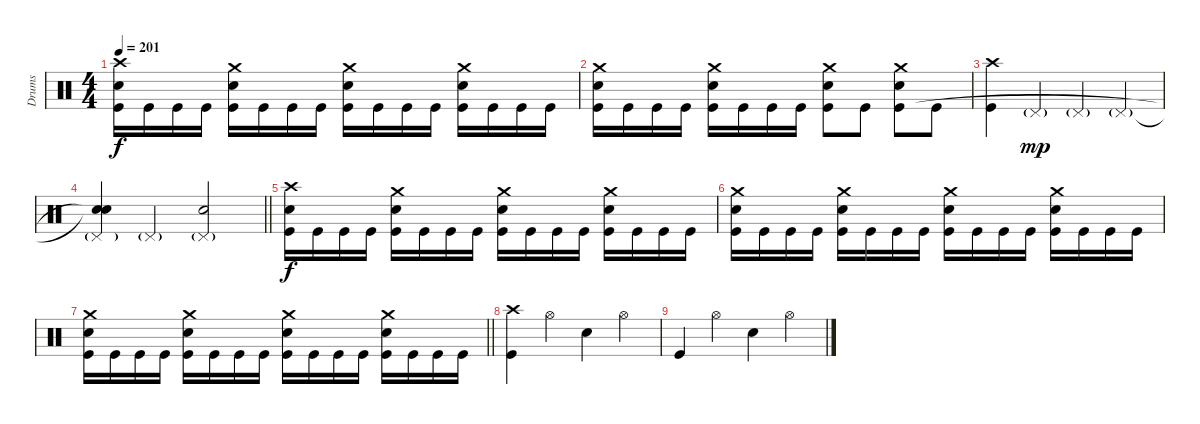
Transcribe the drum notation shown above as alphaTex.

\track ("Drums" "Drums") {instrument percussion}
\staff
\articulation defaults
\ts (4 4)
\tempo 201
\clef neutral
\ks c
("Crash high (hit)" "Electric Snare (hit)" "Kick (hit)").16{dy f} "Kick (hit)".16 "Kick (hit)".16 "Kick (hit)".16 ("Crash medium (hit)" "Electric Snare (hit)" "Kick (hit)").16 "Kick (hit)".16 "Kick (hit)".16 "Kick (hit)".16 ("Crash medium (hit)" "Electric Snare (hit)" "Kick (hit)").16 "Kick (hit)".16 "Kick (hit)".16 "Kick (hit)".16 ("Crash medium (hit)" "Electric Snare (hit)" "Kick (hit)").16 "Kick (hit)".16 "Kick (hit)".16 "Kick (hit)".16 |
("Crash medium (hit)" "Electric Snare (hit)" "Kick (hit)").16 "Kick (hit)".16 "Kick (hit)".16 "Kick (hit)".16 ("Crash medium (hit)" "Electric Snare (hit)" "Kick (hit)").16 "Kick (hit)".16 "Kick (hit)".16 "Kick (hit)".16 ("Crash medium (hit)" "Electric Snare (hit)" "Kick (hit)").8 "Kick (hit)".8 ("Crash medium (hit)" "Electric Snare (hit)" "Kick (hit)").8 "Kick (hit)".8 |
("Crash high (hit)" "Kick (hit)").4 "Pedal Hi-Hat (hit)"{g}.4{dy mp} "Pedal Hi-Hat (hit)"{g}.4 "Pedal Hi-Hat (hit)"{g}.4 |
\barLineRight lightlight
("Snare (hit)"{t} "Pedal Hi-Hat (hit)"{g} "Snare (hit)"{t}).4 "Pedal Hi-Hat (hit)"{g}.4 ("Pedal Hi-Hat (hit)"{g} "Electric Snare (hit)").2 |
("Crash high (hit)" "Electric Snare (hit)" "Kick (hit)").16{dy f} "Kick (hit)".16 "Kick (hit)".16 "Kick (hit)".16 ("Crash medium (hit)" "Electric Snare (hit)" "Kick (hit)").16 "Kick (hit)".16 "Kick (hit)".16 "Kick (hit)".16 ("Crash medium (hit)" "Electric Snare (hit)" "Kick (hit)").16 "Kick (hit)".16 "Kick (hit)".16 "Kick (hit)".16 ("Crash medium (hit)" "Electric Snare (hit)" "Kick (hit)").16 "Kick (hit)".16 "Kick (hit)".16 "Kick (hit)".16 |
("Crash medium (hit)" "Electric Snare (hit)" "Kick (hit)").16 "Kick (hit)".16 "Kick (hit)".16 "Kick (hit)".16 ("Crash medium (hit)" "Electric Snare (hit)" "Kick (hit)").16 "Kick (hit)".16 "Kick (hit)".16 "Kick (hit)".16 ("Crash medium (hit)" "Electric Snare (hit)" "Kick (hit)").16 "Kick (hit)".16 "Kick (hit)".16 "Kick (hit)".16 ("Crash medium (hit)" "Electric Snare (hit)" "Kick (hit)").16 "Kick (hit)".16 "Kick (hit)".16 "Kick (hit)".16 |
\barLineRight lightlight
("Crash medium (hit)" "Electric Snare (hit)" "Kick (hit)").16 "Kick (hit)".16 "Kick (hit)".16 "Kick (hit)".16 ("Crash medium (hit)" "Electric Snare (hit)" "Kick (hit)").16 "Kick (hit)".16 "Kick (hit)".16 "Kick (hit)".16 ("Crash medium (hit)" "Electric Snare (hit)" "Kick (hit)").16 "Kick (hit)".16 "Kick (hit)".16 "Kick (hit)".16 ("Crash medium (hit)" "Electric Snare (hit)" "Kick (hit)").16 "Kick (hit)".16 "Kick (hit)".16 "Kick (hit)".16 |
("Crash high (hit)" "Kick (hit)").4 "Hi-Hat (open)".4 "Electric Snare (hit)".4 "Hi-Hat (open)".4 |
"Kick (hit)".4 "Hi-Hat (open)".4 "Electric Snare (hit)".4 "Hi-Hat (open)".4
